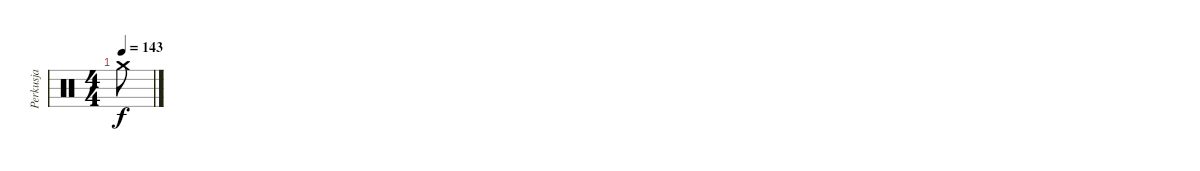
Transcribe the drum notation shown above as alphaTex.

\track ("Perkusja" "Perkusja") {instrument percussion}
\staff {score}
\articulation defaults
\ts (4 4)
\tempo 143
\clef neutral
\ks c "Crash medium (hit)".8{dy f}
